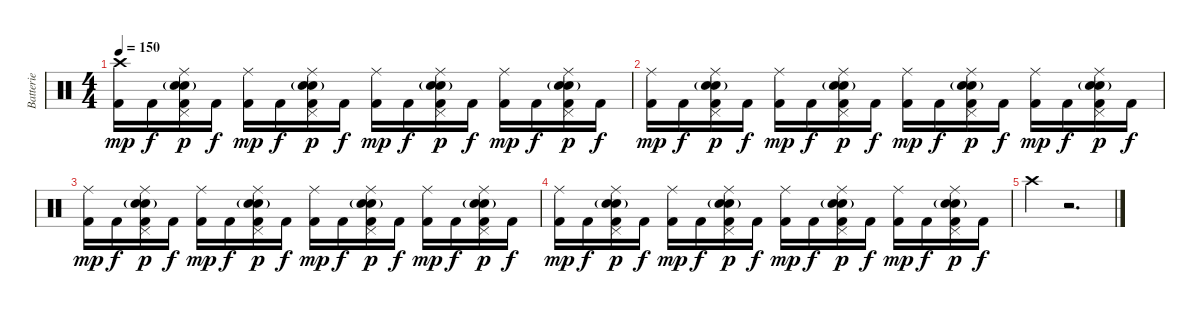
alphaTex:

\track ("Batterie" "Batterie") {instrument percussion}
\staff {score}
\articulation defaults
\ts (4 4)
\tempo 150
\clef neutral
\ks c
("Crash high (hit)" "Kick (hit) 2").16{dy mp} "Kick (hit) 2".16{dy f} ("Ride (middle)" "Pedal Hi-Hat (hit)" "Electric Snare (hit)" "Snare (hit) 2"{g} "Kick (hit) 2").16{dy p} "Kick (hit) 2".16{dy f} ("Ride (middle)" "Kick (hit) 2").16{dy mp} "Kick (hit) 2".16{dy f} ("Ride (middle)" "Pedal Hi-Hat (hit)" "Electric Snare (hit)" "Snare (hit) 2"{g} "Kick (hit) 2").16{dy p} "Kick (hit) 2".16{dy f} ("Ride (middle)" "Kick (hit) 2").16{dy mp} "Kick (hit) 2".16{dy f} ("Ride (middle)" "Pedal Hi-Hat (hit)" "Electric Snare (hit)" "Snare (hit) 2"{g} "Kick (hit) 2").16{dy p} "Kick (hit) 2".16{dy f} ("Ride (middle)" "Kick (hit) 2").16{dy mp} "Kick (hit) 2".16{dy f} ("Ride (middle)" "Pedal Hi-Hat (hit)" "Electric Snare (hit)" "Snare (hit) 2"{g} "Kick (hit) 2").16{dy p} "Kick (hit) 2".16{dy f} |
("Ride (middle)" "Kick (hit) 2").16{dy mp} "Kick (hit) 2".16{dy f} ("Ride (middle)" "Pedal Hi-Hat (hit)" "Electric Snare (hit)" "Snare (hit) 2"{g} "Kick (hit) 2").16{dy p} "Kick (hit) 2".16{dy f} ("Ride (middle)" "Kick (hit) 2").16{dy mp} "Kick (hit) 2".16{dy f} ("Ride (middle)" "Pedal Hi-Hat (hit)" "Electric Snare (hit)" "Snare (hit) 2"{g} "Kick (hit) 2").16{dy p} "Kick (hit) 2".16{dy f} ("Ride (middle)" "Kick (hit) 2").16{dy mp} "Kick (hit) 2".16{dy f} ("Ride (middle)" "Pedal Hi-Hat (hit)" "Electric Snare (hit)" "Snare (hit) 2"{g} "Kick (hit) 2").16{dy p} "Kick (hit) 2".16{dy f} ("Ride (middle)" "Kick (hit) 2").16{dy mp} "Kick (hit) 2".16{dy f} ("Ride (middle)" "Pedal Hi-Hat (hit)" "Electric Snare (hit)" "Snare (hit) 2"{g} "Kick (hit) 2").16{dy p} "Kick (hit) 2".16{dy f} |
("Ride (middle)" "Kick (hit) 2").16{dy mp} "Kick (hit) 2".16{dy f} ("Ride (middle)" "Pedal Hi-Hat (hit)" "Electric Snare (hit)" "Snare (hit) 2"{g} "Kick (hit) 2").16{dy p} "Kick (hit) 2".16{dy f} ("Ride (middle)" "Kick (hit) 2").16{dy mp} "Kick (hit) 2".16{dy f} ("Ride (middle)" "Pedal Hi-Hat (hit)" "Electric Snare (hit)" "Snare (hit) 2"{g} "Kick (hit) 2").16{dy p} "Kick (hit) 2".16{dy f} ("Ride (middle)" "Kick (hit) 2").16{dy mp} "Kick (hit) 2".16{dy f} ("Ride (middle)" "Pedal Hi-Hat (hit)" "Electric Snare (hit)" "Snare (hit) 2"{g} "Kick (hit) 2").16{dy p} "Kick (hit) 2".16{dy f} ("Ride (middle)" "Kick (hit) 2").16{dy mp} "Kick (hit) 2".16{dy f} ("Ride (middle)" "Pedal Hi-Hat (hit)" "Electric Snare (hit)" "Snare (hit) 2"{g} "Kick (hit) 2").16{dy p} "Kick (hit) 2".16{dy f} |
("Ride (middle)" "Kick (hit) 2").16{dy mp} "Kick (hit) 2".16{dy f} ("Ride (middle)" "Pedal Hi-Hat (hit)" "Electric Snare (hit)" "Snare (hit) 2"{g} "Kick (hit) 2").16{dy p} "Kick (hit) 2".16{dy f} ("Ride (middle)" "Kick (hit) 2").16{dy mp} "Kick (hit) 2".16{dy f} ("Ride (middle)" "Pedal Hi-Hat (hit)" "Electric Snare (hit)" "Snare (hit) 2"{g} "Kick (hit) 2").16{dy p} "Kick (hit) 2".16{dy f} ("Ride (middle)" "Kick (hit) 2").16{dy mp} "Kick (hit) 2".16{dy f} ("Ride (middle)" "Pedal Hi-Hat (hit)" "Electric Snare (hit)" "Snare (hit) 2"{g} "Kick (hit) 2").16{dy p} "Kick (hit) 2".16{dy f} ("Ride (middle)" "Kick (hit) 2").16{dy mp} "Kick (hit) 2".16{dy f} ("Ride (middle)" "Pedal Hi-Hat (hit)" "Electric Snare (hit)" "Snare (hit) 2"{g} "Kick (hit) 2").16{dy p} "Kick (hit) 2".16{dy f} |
"Crash high (hit)".4{volume 0} r.2{d}
